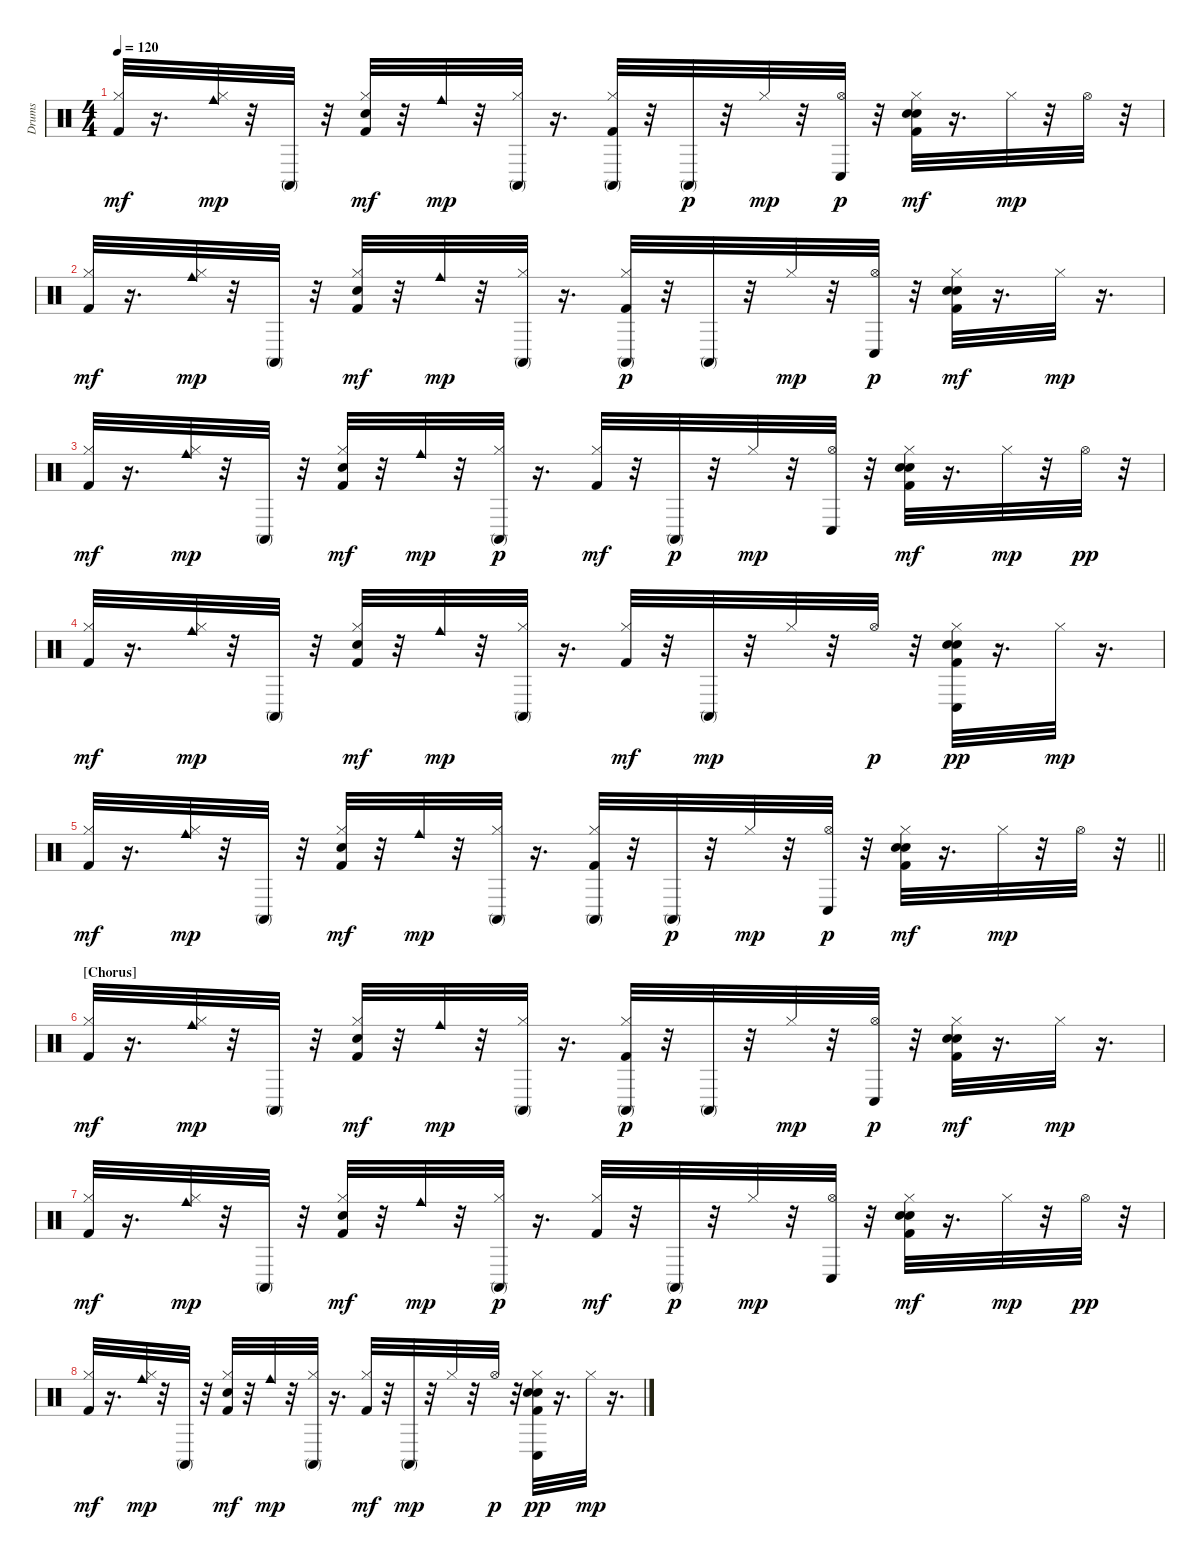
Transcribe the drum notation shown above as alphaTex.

\track ("Drums" "Drums") {instrument percussion}
\staff {score}
\articulation defaults
\ts (4 4)
\tempo 120
\clef neutral
\ks c
("Hi-Hat (closed)" "Kick (hit) 2").32{dy mf} r.16{d} ("Hi-Hat (closed)" "Cowbell medium (hit)").32{dy mp} r.32 "Conga high (mute)".32 r.32 ("Hi-Hat (closed)" "Electric Snare (hit)" "Kick (hit) 2").32{dy mf} r.32 "Cowbell medium (hit)".32{dy mp} r.32 ("Hi-Hat (closed)" "Conga high (mute)").32 r.16{d} ("Hi-Hat (closed)" "Kick (hit) 2" "Conga high (mute)").32 r.32 "Conga high (mute)".32{dy p} r.32 "Hi-Hat (closed)".32{dy mp} r.32 ("Hi-Hat (open)" "Conga low (hit)").32{dy p} r.32 ("Kick (hit) 2" "Hi-Hat (closed)" "Electric Snare (hit)" "Hand Clap (hit)").32{dy mf} r.16{d} "Hi-Hat (closed)".32{dy mp} r.32 "Hi-Hat (open)".32 r.32 |
("Hi-Hat (closed)" "Kick (hit) 2").32{dy mf} r.16{d} ("Hi-Hat (closed)" "Cowbell medium (hit)").32{dy mp} r.32 "Conga high (mute)".32 r.32 ("Hi-Hat (closed)" "Electric Snare (hit)" "Kick (hit) 2").32{dy mf} r.32 "Cowbell medium (hit)".32{dy mp} r.32 ("Hi-Hat (closed)" "Conga high (mute)").32 r.16{d} ("Kick (hit) 2" "Hi-Hat (closed)" "Conga high (mute)").32{dy p} r.32 "Conga high (mute)".32 r.32 "Hi-Hat (closed)".32{dy mp} r.32 ("Hi-Hat (open)" "Conga low (hit)").32{dy p} r.32 ("Hi-Hat (closed)" "Hand Clap (hit)" "Electric Snare (hit)" "Kick (hit) 2").32{dy mf} r.16{d} "Hi-Hat (closed)".32{dy mp} r.16{d} |
("Hi-Hat (closed)" "Kick (hit) 2").32{dy mf} r.16{d} ("Hi-Hat (closed)" "Cowbell medium (hit)").32{dy mp} r.32 "Conga high (mute)".32 r.32 ("Hi-Hat (closed)" "Electric Snare (hit)" "Kick (hit) 2").32{dy mf} r.32 "Cowbell medium (hit)".32{dy mp} r.32 ("Hi-Hat (closed)" "Conga high (mute)").32{dy p} r.16{d} ("Hi-Hat (closed)" "Kick (hit) 2").32{dy mf} r.32 "Conga high (mute)".32{dy p} r.32 "Hi-Hat (closed)".32{dy mp} r.32 ("Hi-Hat (open)" "Conga low (hit)").32 r.32 ("Kick (hit) 2" "Hi-Hat (closed)" "Electric Snare (hit)" "Hand Clap (hit)").32{dy mf} r.16{d} "Hi-Hat (closed)".32{dy mp} r.32 "Hi-Hat (open)".32{dy pp} r.32 |
("Hi-Hat (closed)" "Kick (hit) 2").32{dy mf} r.16{d} ("Hi-Hat (closed)" "Cowbell medium (hit)").32{dy mp} r.32 "Conga high (mute)".32 r.32 ("Hi-Hat (closed)" "Electric Snare (hit)" "Kick (hit) 2").32{dy mf} r.32 "Cowbell medium (hit)".32{dy mp} r.32 ("Hi-Hat (closed)" "Conga high (mute)").32 r.16{d} ("Hi-Hat (closed)" "Kick (hit) 2").32{dy mf} r.32 "Conga high (mute)".32{dy mp} r.32 "Hi-Hat (closed)".32 r.32 "Hi-Hat (open)".32{dy p} r.32 ("Hi-Hat (closed)" "Kick (hit) 2" "Hand Clap (hit)" "Electric Snare (hit)" "Conga low (hit)").32{dy pp} r.16{d} "Hi-Hat (closed)".32{dy mp} r.16{d} |
\barLineRight lightlight
("Hi-Hat (closed)" "Kick (hit) 2").32{dy mf} r.16{d} ("Hi-Hat (closed)" "Cowbell medium (hit)").32{dy mp} r.32 "Conga high (mute)".32 r.32 ("Hi-Hat (closed)" "Electric Snare (hit)" "Kick (hit) 2").32{dy mf} r.32 "Cowbell medium (hit)".32{dy mp} r.32 ("Hi-Hat (closed)" "Conga high (mute)").32 r.16{d} ("Hi-Hat (closed)" "Kick (hit) 2" "Conga high (mute)").32 r.32 "Conga high (mute)".32{dy p} r.32 "Hi-Hat (closed)".32{dy mp} r.32 ("Hi-Hat (open)" "Conga low (hit)").32{dy p} r.32 ("Kick (hit) 2" "Hi-Hat (closed)" "Electric Snare (hit)" "Hand Clap (hit)").32{dy mf} r.16{d} "Hi-Hat (closed)".32{dy mp} r.32 "Hi-Hat (open)".32 r.32 |
\section ("" "[Chorus]")
("Hi-Hat (closed)" "Kick (hit) 2").32{dy mf} r.16{d} ("Hi-Hat (closed)" "Cowbell medium (hit)").32{dy mp} r.32 "Conga high (mute)".32 r.32 ("Hi-Hat (closed)" "Electric Snare (hit)" "Kick (hit) 2").32{dy mf} r.32 "Cowbell medium (hit)".32{dy mp} r.32 ("Hi-Hat (closed)" "Conga high (mute)").32 r.16{d} ("Kick (hit) 2" "Hi-Hat (closed)" "Conga high (mute)").32{dy p} r.32 "Conga high (mute)".32 r.32 "Hi-Hat (closed)".32{dy mp} r.32 ("Hi-Hat (open)" "Conga low (hit)").32{dy p} r.32 ("Hi-Hat (closed)" "Hand Clap (hit)" "Electric Snare (hit)" "Kick (hit) 2").32{dy mf} r.16{d} "Hi-Hat (closed)".32{dy mp} r.16{d} |
("Hi-Hat (closed)" "Kick (hit) 2").32{dy mf} r.16{d} ("Hi-Hat (closed)" "Cowbell medium (hit)").32{dy mp} r.32 "Conga high (mute)".32 r.32 ("Hi-Hat (closed)" "Electric Snare (hit)" "Kick (hit) 2").32{dy mf} r.32 "Cowbell medium (hit)".32{dy mp} r.32 ("Hi-Hat (closed)" "Conga high (mute)").32{dy p} r.16{d} ("Hi-Hat (closed)" "Kick (hit) 2").32{dy mf} r.32 "Conga high (mute)".32{dy p} r.32 "Hi-Hat (closed)".32{dy mp} r.32 ("Hi-Hat (open)" "Conga low (hit)").32 r.32 ("Kick (hit) 2" "Hi-Hat (closed)" "Electric Snare (hit)" "Hand Clap (hit)").32{dy mf} r.16{d} "Hi-Hat (closed)".32{dy mp} r.32 "Hi-Hat (open)".32{dy pp} r.32 |
("Hi-Hat (closed)" "Kick (hit) 2").32{dy mf} r.16{d} ("Hi-Hat (closed)" "Cowbell medium (hit)").32{dy mp} r.32 "Conga high (mute)".32 r.32 ("Hi-Hat (closed)" "Electric Snare (hit)" "Kick (hit) 2").32{dy mf} r.32 "Cowbell medium (hit)".32{dy mp} r.32 ("Hi-Hat (closed)" "Conga high (mute)").32 r.16{d} ("Hi-Hat (closed)" "Kick (hit) 2").32{dy mf} r.32 "Conga high (mute)".32{dy mp} r.32 "Hi-Hat (closed)".32 r.32 "Hi-Hat (open)".32{dy p} r.32 ("Hi-Hat (closed)" "Kick (hit) 2" "Hand Clap (hit)" "Electric Snare (hit)" "Conga low (hit)").32{dy pp} r.16{d} "Hi-Hat (closed)".32{dy mp} r.16{d}
